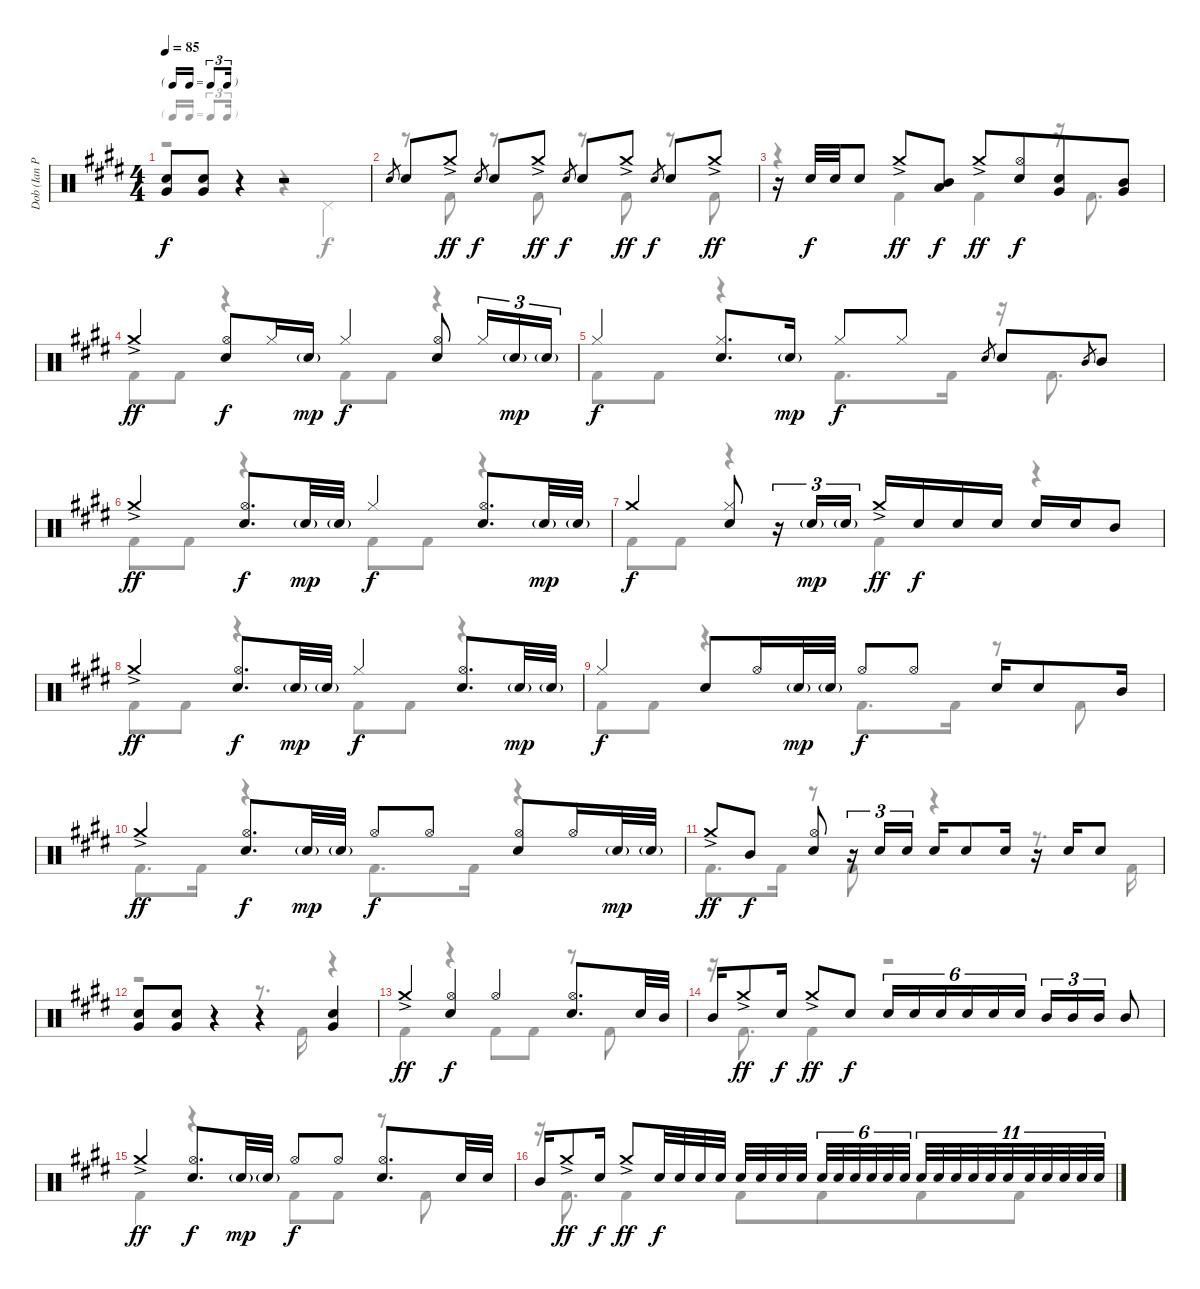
\track ("Dob (Ian Paice)" "Dob (Ian P") {instrument percussion}
\staff {score}
\articulation defaults
\voice
\ts (4 4)
\tf triplet16th
\tempo 85
\clef neutral
\ks e
("Electric Snare (hit)" "Very Low Tom (hit)").8{dy f} ("Electric Snare (hit)" "Very Low Tom (hit)").8 r.4 r.2 |
"Electric Snare (hit)".8{gr} "Electric Snare (hit)".8 "Crash medium (hit)"{ac}.8{dy ff} "Electric Snare (hit)".8{gr dy f beam merge} "Electric Snare (hit)".8 "Crash medium (hit)"{ac}.8{dy ff} "Electric Snare (hit)".8{gr dy f} "Electric Snare (hit)".8 "Crash medium (hit)"{ac}.8{dy ff} "Electric Snare (hit)".8{gr dy f beam merge} "Electric Snare (hit)".8 "Crash medium (hit)"{ac}.8{dy ff} |
r.16 "Electric Snare (hit)".32{dy f} "Electric Snare (hit)".32 "Electric Snare (hit)".8 "Crash medium (hit)"{ac}.8{dy ff} ("Mid Tom (hit)" "Low Tom (hit)").8{dy f} "Crash medium (hit)"{ac}.8{dy ff} ("Hi-Hat (open)" "Electric Snare (hit)").8{dy f beam merge} ("Electric Snare (hit)" "Very Low Tom (hit)").8 ("Mid Tom (hit)" "Very Low Tom (hit)").8 |
"Crash medium (hit)"{ac}.4{dy ff} ("Hi-Hat (open)" "Electric Snare (hit)").8{dy f} "Hi-Hat (closed)".16 "Electric Snare (hit)"{g}.16{dy mp} "Hi-Hat (closed)".4{dy f} ("Hi-Hat (open)" "Electric Snare (hit)").8 "Hi-Hat (closed)".16{tu (3 2)} "Electric Snare (hit)"{g}.16{tu (3 2) dy mp} "Electric Snare (hit)"{g}.16{tu (3 2)} |
"Hi-Hat (closed)".4{dy f} ("Hi-Hat (closed)" "Electric Snare (hit)").8{d} "Electric Snare (hit)"{g}.16{dy mp} "Hi-Hat (closed)".8{dy f} "Hi-Hat (closed)".8 "Electric Snare (hit)".8{gr beam merge} "Electric Snare (hit)".8 "Mid Tom (hit)".8{gr} "Mid Tom (hit)".8 |
"Crash medium (hit)"{ac}.4{dy ff} ("Hi-Hat (open)" "Electric Snare (hit)").8{d dy f} "Electric Snare (hit)"{g}.32{dy mp} "Electric Snare (hit)"{g}.32 "Hi-Hat (closed)".4{dy f} ("Hi-Hat (open)" "Electric Snare (hit)").8{d} "Electric Snare (hit)"{g}.32{dy mp} "Electric Snare (hit)"{g}.32 |
"Crash medium (hit)".4{dy f} ("Hi-Hat (closed)" "Electric Snare (hit)").8 r.16{tu (3 2)} "Electric Snare (hit)"{g}.16{tu (3 2) dy mp} "Electric Snare (hit)"{g}.16{tu (3 2)} "Crash medium (hit)"{ac}.16{dy ff} "Electric Snare (hit)".16{dy f} "Electric Snare (hit)".16 "Electric Snare (hit)".16 "Electric Snare (hit)".16 "Electric Snare (hit)".16 "Mid Tom (hit)".8 |
"Crash medium (hit)"{ac}.4{dy ff} ("Hi-Hat (open)" "Electric Snare (hit)").8{d dy f} "Electric Snare (hit)"{g}.32{dy mp} "Electric Snare (hit)"{g}.32 "Hi-Hat (closed)".4{dy f} ("Hi-Hat (open)" "Electric Snare (hit)").8{d} "Electric Snare (hit)"{g}.32{dy mp} "Electric Snare (hit)"{g}.32 |
"Hi-Hat (closed)".4{dy f} "Electric Snare (hit)".8 "Hi-Hat (open)".16 "Electric Snare (hit)"{g}.32{dy mp} "Electric Snare (hit)"{g}.32 "Hi-Hat (open)".8{dy f} "Hi-Hat (open)".8 "Electric Snare (hit)".16 "Electric Snare (hit)".8 "Mid Tom (hit)".16 |
"Crash medium (hit)"{ac}.4{dy ff} ("Hi-Hat (open)" "Electric Snare (hit)").8{d dy f} "Electric Snare (hit)"{g}.32{dy mp} "Electric Snare (hit)"{g}.32 "Hi-Hat (open)".8{dy f} "Hi-Hat (open)".8 ("Hi-Hat (open)" "Electric Snare (hit)").8 "Hi-Hat (open)".16 "Electric Snare (hit)"{g}.32{dy mp} "Electric Snare (hit)"{g}.32 |
"Crash medium (hit)"{ac}.8{dy ff} "Mid Tom (hit)".8{dy f} ("Hi-Hat (open)" "Electric Snare (hit)").8 r.16{tu (3 2)} "Electric Snare (hit)".16{tu (3 2)} "Electric Snare (hit)".16{tu (3 2)} "Electric Snare (hit)".16 "Electric Snare (hit)".8 "Electric Snare (hit)".16 r.16 "Electric Snare (hit)".16 "Electric Snare (hit)".8 |
("Electric Snare (hit)" "Very Low Tom (hit)").8 ("Electric Snare (hit)" "Very Low Tom (hit)").8 r.4 r.4 ("Electric Snare (hit)" "Very Low Tom (hit)").4 |
"Crash medium (hit)"{ac}.4{dy ff} ("Hi-Hat (open)" "Electric Snare (hit)").4{dy f} "Hi-Hat (open)".4 ("Hi-Hat (open)" "Electric Snare (hit)").8{d} "Electric Snare (hit)".32 "Mid Tom (hit)".32 |
"Mid Tom (hit)".16 "Crash medium (hit)"{ac}.8{dy ff} "Electric Snare (hit)".16{dy f} "Crash medium (hit)"{ac}.8{dy ff} "Electric Snare (hit)".8{dy f} "Electric Snare (hit)".16{tu (6 4)} "Electric Snare (hit)".16{tu (6 4)} "Electric Snare (hit)".16{tu (6 4)} "Electric Snare (hit)".16{tu (6 4)} "Electric Snare (hit)".16{tu (6 4)} "Electric Snare (hit)".16{tu (6 4)} "Mid Tom (hit)".16{tu (3 2)} "Mid Tom (hit)".16{tu (3 2)} "Mid Tom (hit)".16{tu (3 2)} "Mid Tom (hit)".8 |
"Crash medium (hit)"{ac}.4{dy ff} ("Hi-Hat (open)" "Electric Snare (hit)").8{d dy f} "Electric Snare (hit)"{g}.32{dy mp} "Electric Snare (hit)"{g}.32 "Hi-Hat (open)".8{dy f} "Hi-Hat (open)".8 ("Hi-Hat (open)" "Electric Snare (hit)").8{d} "Electric Snare (hit)".32 "Electric Snare (hit)".32 |
"Mid Tom (hit)".16 "Crash medium (hit)"{ac}.8{dy ff} "Electric Snare (hit)".16{dy f} "Crash medium (hit)"{ac}.8{dy ff} "Electric Snare (hit)".32{dy f} "Electric Snare (hit)".32 "Electric Snare (hit)".32 "Electric Snare (hit)".32 "Electric Snare (hit)".32 "Electric Snare (hit)".32 "Electric Snare (hit)".32 "Electric Snare (hit)".32{beam splitsecondary} "Electric Snare (hit)".32{tu (6 4)} "Electric Snare (hit)".32{tu (6 4)} "Electric Snare (hit)".32{tu (6 4)} "Electric Snare (hit)".32{tu (6 4)} "Electric Snare (hit)".32{tu (6 4)} "Electric Snare (hit)".32{tu (6 4)} "Electric Snare (hit)".32{tu (11 8)} "Electric Snare (hit)".32{tu (11 8)} "Electric Snare (hit)".32{tu (11 8)} "Electric Snare (hit)".32{tu (11 8)} "Electric Snare (hit)".32{tu (11 8)} "Electric Snare (hit)".32{tu (11 8)} "Electric Snare (hit)".32{tu (11 8)} "Electric Snare (hit)".32{tu (11 8)} "Electric Snare (hit)".32{tu (11 8)} "Electric Snare (hit)".32{tu (11 8)} "Electric Snare (hit)".32{tu (11 8)}
\voice
\clef neutral
\ottava regular
\simile none
\ks e
r.2{dy f} r.4 "Pedal Hi-Hat (hit)".4 |
r.8 "Kick (hit) 2".8 r.8 "Kick (hit) 2".8 r.8 "Kick (hit) 2".8 r.8 "Kick (hit) 2".8 |
r.4 "Kick (hit) 2".4 "Kick (hit) 2".4 r.16 "Kick (hit) 2".8{d} |
"Kick (hit) 2".8 "Kick (hit) 2".8 r.4 "Kick (hit) 2".8 "Kick (hit) 2".8 r.4 |
"Kick (hit) 2".8 "Kick (hit) 2".8 r.4 "Kick (hit) 2".8{d} "Kick (hit) 2".16 r.16 "Kick (hit) 2".8{d} |
"Kick (hit) 2".8 "Kick (hit) 2".8 r.4 "Kick (hit) 2".8 "Kick (hit) 2".8 r.4 |
"Kick (hit) 2".8 "Kick (hit) 2".8 r.4 "Kick (hit) 2".4 r.4 |
"Kick (hit) 2".8 "Kick (hit) 2".8 r.4 "Kick (hit) 2".8 "Kick (hit) 2".8 r.4 |
"Kick (hit) 2".8 "Kick (hit) 2".8 r.4 "Kick (hit) 2".8{d} "Kick (hit) 2".16 r.8 "Kick (hit) 2".8 |
"Kick (hit) 2".8{d} "Kick (hit) 2".16 r.4 "Kick (hit) 2".8{d} "Kick (hit) 2".16 r.4 |
"Kick (hit) 2".8{d} "Kick (hit) 2".16 r.8 "Kick (hit) 2".8 r.4 r.8{d} "Kick (hit) 2".16 |
r.2 r.8{d} "Kick (hit) 2".16 r.4 |
"Kick (hit) 2".4 r.4 "Kick (hit) 2".8 "Kick (hit) 2".8 r.8 "Kick (hit) 2".8 |
r.16 "Kick (hit) 2".8{d} "Kick (hit) 2".4 r.2 |
"Kick (hit) 2".4 r.4 "Kick (hit) 2".8 "Kick (hit) 2".8 r.8 "Kick (hit) 2".8 |
r.16 "Kick (hit) 2".8{d} "Kick (hit) 2".4 "Kick (hit) 2".8 "Kick (hit) 2".8{beam merge} "Kick (hit) 2".8 "Kick (hit) 2".8
